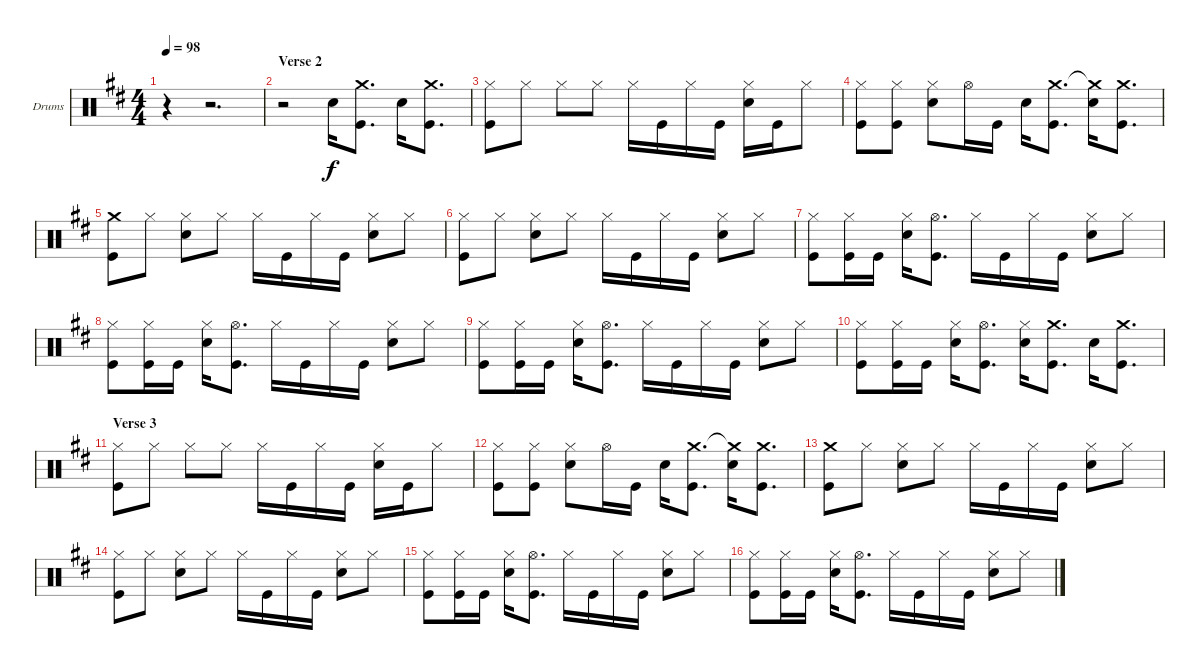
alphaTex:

\bracketExtendMode groupsimilarinstruments
\firstSystemTrackNameOrientation horizontal
\otherSystemsTrackNameOrientation horizontal
\track ("Drumkit" "Drums") {instrument percussion}
\staff {score}
\articulation defaults
\ts (4 4)
\tempo 98
\clef neutral
\ks d
r.4{dy f} r.2{d} |
\section ("" "Verse 2")
r.2 "Snare (hit) 2".16 ("Crash medium (hit)" "Kick (hit)").8{d} "Snare (hit) 2".16 ("Crash medium (hit)" "Kick (hit)").8{d} |
("Hi-Hat (closed)" "Kick (hit)").8 "Hi-Hat (closed)".8 "Hi-Hat (closed)".8 "Hi-Hat (closed)".8 "Hi-Hat (closed)".16 "Kick (hit)".16 "Hi-Hat (closed)".16 "Kick (hit)".16 ("Hi-Hat (closed)" "Snare (hit) 2").16 "Kick (hit)".16 "Hi-Hat (closed)".8 |
("Hi-Hat (closed)" "Kick (hit)").8 ("Hi-Hat (closed)" "Kick (hit)").8 ("Hi-Hat (closed)" "Snare (hit) 2").8 "Hi-Hat (open)".16 "Kick (hit)".16 "Snare (hit) 2".16 ("Crash medium (hit)" "Kick (hit)").8{d} ("Crash medium (hit)"{t} "Snare (hit) 2").16 ("Crash medium (hit)" "Kick (hit)").8{d} |
("Crash medium (hit)" "Kick (hit)").8 "Hi-Hat (closed)".8 ("Hi-Hat (closed)" "Snare (hit) 2").8 "Hi-Hat (closed)".8 "Hi-Hat (closed)".16 "Kick (hit)".16 "Hi-Hat (closed)".16 "Kick (hit)".16 ("Hi-Hat (closed)" "Snare (hit) 2").8 "Hi-Hat (closed)".8 |
("Hi-Hat (closed)" "Kick (hit)").8 "Hi-Hat (closed)".8 ("Hi-Hat (closed)" "Snare (hit) 2").8 "Hi-Hat (closed)".8 "Hi-Hat (closed)".16 "Kick (hit)".16 "Hi-Hat (closed)".16 "Kick (hit)".16 ("Hi-Hat (closed)" "Snare (hit) 2").8 "Hi-Hat (closed)".8 |
("Hi-Hat (closed)" "Kick (hit)").8 ("Hi-Hat (closed)" "Kick (hit)").16 "Kick (hit)".16 ("Hi-Hat (closed)" "Snare (hit) 2").16 ("Hi-Hat (open)" "Kick (hit)").8{d} "Hi-Hat (closed)".16 "Kick (hit)".16 "Hi-Hat (closed)".16 "Kick (hit)".16 ("Hi-Hat (closed)" "Snare (hit) 2").8 "Hi-Hat (closed)".8 |
("Hi-Hat (closed)" "Kick (hit)").8 ("Hi-Hat (closed)" "Kick (hit)").16 "Kick (hit)".16 ("Hi-Hat (closed)" "Snare (hit) 2").16 ("Hi-Hat (open)" "Kick (hit)").8{d} "Hi-Hat (closed)".16 "Kick (hit)".16 "Hi-Hat (closed)".16 "Kick (hit)".16 ("Hi-Hat (closed)" "Snare (hit) 2").8 "Hi-Hat (closed)".8 |
("Hi-Hat (closed)" "Kick (hit)").8 ("Hi-Hat (closed)" "Kick (hit)").16 "Kick (hit)".16 ("Hi-Hat (closed)" "Snare (hit) 2").16 ("Hi-Hat (open)" "Kick (hit)").8{d} "Hi-Hat (closed)".16 "Kick (hit)".16 "Hi-Hat (closed)".16 "Kick (hit)".16 ("Hi-Hat (closed)" "Snare (hit) 2").8 "Hi-Hat (closed)".8 |
("Hi-Hat (closed)" "Kick (hit)").8 ("Hi-Hat (closed)" "Kick (hit)").16 "Kick (hit)".16 ("Hi-Hat (closed)" "Snare (hit) 2").16 ("Hi-Hat (open)" "Kick (hit)").8{d} ("Hi-Hat (closed)" "Snare (hit) 2").16 ("Crash medium (hit)" "Kick (hit)").8{d} "Snare (hit) 2".16 ("Crash medium (hit)" "Kick (hit)").8{d} |
\section ("" "Verse 3")
("Hi-Hat (closed)" "Kick (hit)").8 "Hi-Hat (closed)".8 "Hi-Hat (closed)".8 "Hi-Hat (closed)".8 "Hi-Hat (closed)".16 "Kick (hit)".16 "Hi-Hat (closed)".16 "Kick (hit)".16 ("Hi-Hat (closed)" "Snare (hit) 2").16 "Kick (hit)".16 "Hi-Hat (closed)".8 |
("Hi-Hat (closed)" "Kick (hit)").8 ("Hi-Hat (closed)" "Kick (hit)").8 ("Hi-Hat (closed)" "Snare (hit) 2").8 "Hi-Hat (open)".16 "Kick (hit)".16 "Snare (hit) 2".16 ("Crash medium (hit)" "Kick (hit)").8{d} ("Crash medium (hit)"{t} "Snare (hit) 2").16 ("Crash medium (hit)" "Kick (hit)").8{d} |
("Crash medium (hit)" "Kick (hit)").8 "Hi-Hat (closed)".8 ("Hi-Hat (closed)" "Snare (hit) 2").8 "Hi-Hat (closed)".8 "Hi-Hat (closed)".16 "Kick (hit)".16 "Hi-Hat (closed)".16 "Kick (hit)".16 ("Hi-Hat (closed)" "Snare (hit) 2").8 "Hi-Hat (closed)".8 |
("Hi-Hat (closed)" "Kick (hit)").8 "Hi-Hat (closed)".8 ("Hi-Hat (closed)" "Snare (hit) 2").8 "Hi-Hat (closed)".8 "Hi-Hat (closed)".16 "Kick (hit)".16 "Hi-Hat (closed)".16 "Kick (hit)".16 ("Hi-Hat (closed)" "Snare (hit) 2").8 "Hi-Hat (closed)".8 |
("Hi-Hat (closed)" "Kick (hit)").8 ("Hi-Hat (closed)" "Kick (hit)").16 "Kick (hit)".16 ("Hi-Hat (closed)" "Snare (hit) 2").16 ("Hi-Hat (open)" "Kick (hit)").8{d} "Hi-Hat (closed)".16 "Kick (hit)".16 "Hi-Hat (closed)".16 "Kick (hit)".16 ("Hi-Hat (closed)" "Snare (hit) 2").8 "Hi-Hat (closed)".8 |
("Hi-Hat (closed)" "Kick (hit)").8 ("Hi-Hat (closed)" "Kick (hit)").16 "Kick (hit)".16 ("Hi-Hat (closed)" "Snare (hit) 2").16 ("Hi-Hat (open)" "Kick (hit)").8{d} "Hi-Hat (closed)".16 "Kick (hit)".16 "Hi-Hat (closed)".16 "Kick (hit)".16 ("Hi-Hat (closed)" "Snare (hit) 2").8 "Hi-Hat (closed)".8
